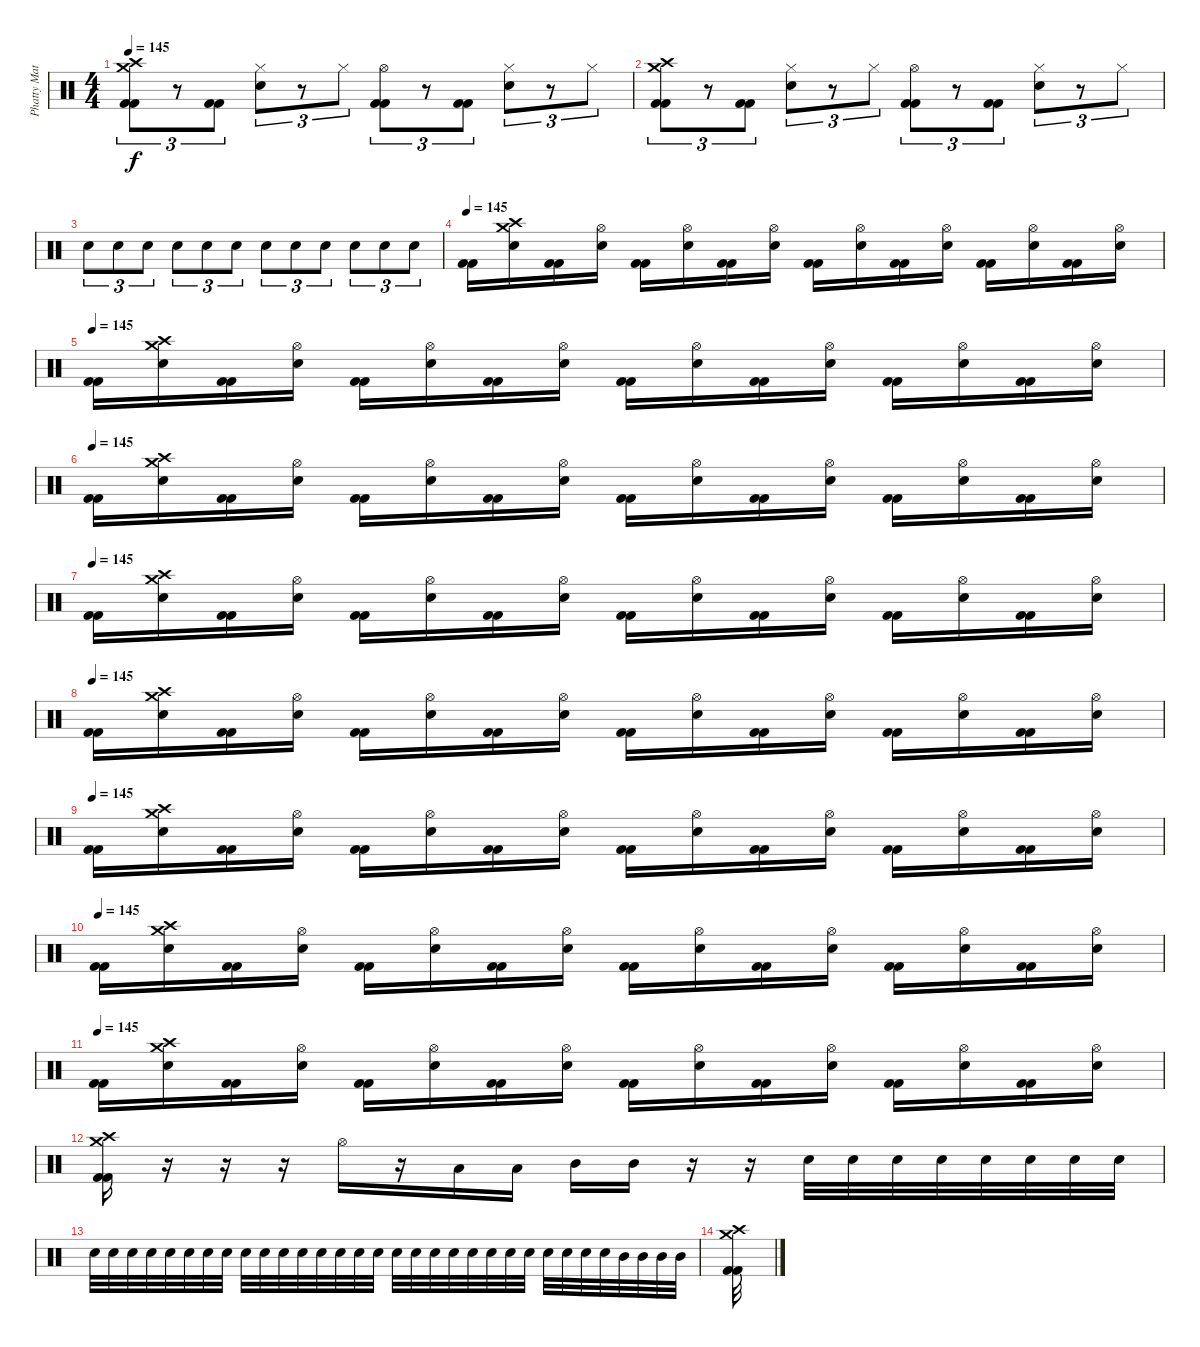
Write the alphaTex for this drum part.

\track ("Phatty Matty Withrow (Drums)" "Phatty Mat") {instrument percussion}
\staff {score}
\articulation defaults
\ts (4 4)
\tempo 145
\clef neutral
\ks c
("Crash high (hit)" "Crash medium (hit)" "Kick (hit) 2" "Kick (hit) 2").8{tu (3 2) dy f} r.8{tu (3 2)} ("Kick (hit) 2" "Kick (hit) 2").8{tu (3 2)} ("Hi-Hat (closed)" "Electric Snare (hit)").8{tu (3 2)} r.8{tu (3 2)} "Hi-Hat (closed)".8{tu (3 2)} ("Hi-Hat (open)" "Kick (hit) 2" "Kick (hit) 2").8{tu (3 2)} r.8{tu (3 2)} ("Kick (hit) 2" "Kick (hit) 2").8{tu (3 2)} ("Hi-Hat (closed)" "Snare (hit)").8{tu (3 2)} r.8{tu (3 2)} "Hi-Hat (closed)".8{tu (3 2)} |
("Crash high (hit)" "Crash medium (hit)" "Kick (hit) 2" "Kick (hit) 2").8{tu (3 2)} r.8{tu (3 2)} ("Kick (hit) 2" "Kick (hit) 2").8{tu (3 2)} ("Hi-Hat (closed)" "Electric Snare (hit)").8{tu (3 2)} r.8{tu (3 2)} "Hi-Hat (closed)".8{tu (3 2)} ("Hi-Hat (open)" "Kick (hit) 2" "Kick (hit) 2").8{tu (3 2)} r.8{tu (3 2)} ("Kick (hit) 2" "Kick (hit) 2").8{tu (3 2)} ("Hi-Hat (closed)" "Snare (hit)").8{tu (3 2)} r.8{tu (3 2)} "Hi-Hat (closed)".8{tu (3 2)} |
"Electric Snare (hit)".8{tu (3 2)} "Electric Snare (hit)".8{tu (3 2)} "Electric Snare (hit)".8{tu (3 2)} "Electric Snare (hit)".8{tu (3 2)} "Electric Snare (hit)".8{tu (3 2)} "Electric Snare (hit)".8{tu (3 2)} "Electric Snare (hit)".8{tu (3 2)} "Electric Snare (hit)".8{tu (3 2)} "Electric Snare (hit)".8{tu (3 2)} "Electric Snare (hit)".8{tu (3 2)} "Electric Snare (hit)".8{tu (3 2)} "Electric Snare (hit)".8{tu (3 2)} |
\tempo 145
("Kick (hit) 2" "Kick (hit) 2").16 ("Crash high (hit)" "Crash medium (hit)" "Electric Snare (hit)").16 ("Kick (hit) 2" "Kick (hit) 2").16 ("Hi-Hat (open)" "Electric Snare (hit)").16 ("Kick (hit) 2" "Kick (hit) 2").16 ("Hi-Hat (open)" "Electric Snare (hit)").16 ("Kick (hit) 2" "Kick (hit) 2").16 ("Hi-Hat (open)" "Electric Snare (hit)").16 ("Kick (hit) 2" "Kick (hit) 2").16 ("Hi-Hat (open)" "Electric Snare (hit)").16 ("Kick (hit) 2" "Kick (hit) 2").16 ("Hi-Hat (open)" "Electric Snare (hit)").16 ("Kick (hit) 2" "Kick (hit) 2").16 ("Hi-Hat (open)" "Electric Snare (hit)").16 ("Kick (hit) 2" "Kick (hit) 2").16 ("Hi-Hat (open)" "Electric Snare (hit)").16 |
\tempo 145
("Kick (hit) 2" "Kick (hit) 2").16 ("Crash high (hit)" "Crash medium (hit)" "Electric Snare (hit)").16 ("Kick (hit) 2" "Kick (hit) 2").16 ("Hi-Hat (open)" "Electric Snare (hit)").16 ("Kick (hit) 2" "Kick (hit) 2").16 ("Hi-Hat (open)" "Electric Snare (hit)").16 ("Kick (hit) 2" "Kick (hit) 2").16 ("Hi-Hat (open)" "Electric Snare (hit)").16 ("Kick (hit) 2" "Kick (hit) 2").16 ("Hi-Hat (open)" "Electric Snare (hit)").16 ("Kick (hit) 2" "Kick (hit) 2").16 ("Hi-Hat (open)" "Electric Snare (hit)").16 ("Kick (hit) 2" "Kick (hit) 2").16 ("Hi-Hat (open)" "Electric Snare (hit)").16 ("Kick (hit) 2" "Kick (hit) 2").16 ("Hi-Hat (open)" "Electric Snare (hit)").16 |
\tempo 145
("Kick (hit) 2" "Kick (hit) 2").16 ("Crash high (hit)" "Crash medium (hit)" "Electric Snare (hit)").16 ("Kick (hit) 2" "Kick (hit) 2").16 ("Hi-Hat (open)" "Electric Snare (hit)").16 ("Kick (hit) 2" "Kick (hit) 2").16 ("Hi-Hat (open)" "Electric Snare (hit)").16 ("Kick (hit) 2" "Kick (hit) 2").16 ("Hi-Hat (open)" "Electric Snare (hit)").16 ("Kick (hit) 2" "Kick (hit) 2").16 ("Hi-Hat (open)" "Electric Snare (hit)").16 ("Kick (hit) 2" "Kick (hit) 2").16 ("Hi-Hat (open)" "Electric Snare (hit)").16 ("Kick (hit) 2" "Kick (hit) 2").16 ("Hi-Hat (open)" "Electric Snare (hit)").16 ("Kick (hit) 2" "Kick (hit) 2").16 ("Hi-Hat (open)" "Electric Snare (hit)").16 |
\tempo 145
("Kick (hit) 2" "Kick (hit) 2").16 ("Crash high (hit)" "Crash medium (hit)" "Electric Snare (hit)").16 ("Kick (hit) 2" "Kick (hit) 2").16 ("Hi-Hat (open)" "Electric Snare (hit)").16 ("Kick (hit) 2" "Kick (hit) 2").16 ("Hi-Hat (open)" "Electric Snare (hit)").16 ("Kick (hit) 2" "Kick (hit) 2").16 ("Hi-Hat (open)" "Electric Snare (hit)").16 ("Kick (hit) 2" "Kick (hit) 2").16 ("Hi-Hat (open)" "Electric Snare (hit)").16 ("Kick (hit) 2" "Kick (hit) 2").16 ("Hi-Hat (open)" "Electric Snare (hit)").16 ("Kick (hit) 2" "Kick (hit) 2").16 ("Hi-Hat (open)" "Electric Snare (hit)").16 ("Kick (hit) 2" "Kick (hit) 2").16 ("Hi-Hat (open)" "Electric Snare (hit)").16 |
\tempo 145
("Kick (hit) 2" "Kick (hit) 2").16 ("Crash high (hit)" "Crash medium (hit)" "Electric Snare (hit)").16 ("Kick (hit) 2" "Kick (hit) 2").16 ("Hi-Hat (open)" "Electric Snare (hit)").16 ("Kick (hit) 2" "Kick (hit) 2").16 ("Hi-Hat (open)" "Electric Snare (hit)").16 ("Kick (hit) 2" "Kick (hit) 2").16 ("Hi-Hat (open)" "Electric Snare (hit)").16 ("Kick (hit) 2" "Kick (hit) 2").16 ("Hi-Hat (open)" "Electric Snare (hit)").16 ("Kick (hit) 2" "Kick (hit) 2").16 ("Hi-Hat (open)" "Electric Snare (hit)").16 ("Kick (hit) 2" "Kick (hit) 2").16 ("Hi-Hat (open)" "Electric Snare (hit)").16 ("Kick (hit) 2" "Kick (hit) 2").16 ("Hi-Hat (open)" "Electric Snare (hit)").16 |
\tempo 145
("Kick (hit) 2" "Kick (hit) 2").16 ("Crash high (hit)" "Crash medium (hit)" "Electric Snare (hit)").16 ("Kick (hit) 2" "Kick (hit) 2").16 ("Hi-Hat (open)" "Electric Snare (hit)").16 ("Kick (hit) 2" "Kick (hit) 2").16 ("Hi-Hat (open)" "Electric Snare (hit)").16 ("Kick (hit) 2" "Kick (hit) 2").16 ("Hi-Hat (open)" "Electric Snare (hit)").16 ("Kick (hit) 2" "Kick (hit) 2").16 ("Hi-Hat (open)" "Electric Snare (hit)").16 ("Kick (hit) 2" "Kick (hit) 2").16 ("Hi-Hat (open)" "Electric Snare (hit)").16 ("Kick (hit) 2" "Kick (hit) 2").16 ("Hi-Hat (open)" "Electric Snare (hit)").16 ("Kick (hit) 2" "Kick (hit) 2").16 ("Hi-Hat (open)" "Electric Snare (hit)").16 |
\tempo 145
("Kick (hit) 2" "Kick (hit) 2").16 ("Crash high (hit)" "Crash medium (hit)" "Electric Snare (hit)").16 ("Kick (hit) 2" "Kick (hit) 2").16 ("Hi-Hat (open)" "Electric Snare (hit)").16 ("Kick (hit) 2" "Kick (hit) 2").16 ("Hi-Hat (open)" "Electric Snare (hit)").16 ("Kick (hit) 2" "Kick (hit) 2").16 ("Hi-Hat (open)" "Electric Snare (hit)").16 ("Kick (hit) 2" "Kick (hit) 2").16 ("Hi-Hat (open)" "Electric Snare (hit)").16 ("Kick (hit) 2" "Kick (hit) 2").16 ("Hi-Hat (open)" "Electric Snare (hit)").16 ("Kick (hit) 2" "Kick (hit) 2").16 ("Hi-Hat (open)" "Electric Snare (hit)").16 ("Kick (hit) 2" "Kick (hit) 2").16 ("Hi-Hat (open)" "Electric Snare (hit)").16 |
\tempo 145
("Kick (hit) 2" "Kick (hit) 2").16 ("Crash high (hit)" "Crash medium (hit)" "Electric Snare (hit)").16 ("Kick (hit) 2" "Kick (hit) 2").16 ("Hi-Hat (open)" "Electric Snare (hit)").16 ("Kick (hit) 2" "Kick (hit) 2").16 ("Hi-Hat (open)" "Electric Snare (hit)").16 ("Kick (hit) 2" "Kick (hit) 2").16 ("Hi-Hat (open)" "Electric Snare (hit)").16 ("Kick (hit) 2" "Kick (hit) 2").16 ("Hi-Hat (open)" "Electric Snare (hit)").16 ("Kick (hit) 2" "Kick (hit) 2").16 ("Hi-Hat (open)" "Electric Snare (hit)").16 ("Kick (hit) 2" "Kick (hit) 2").16 ("Hi-Hat (open)" "Electric Snare (hit)").16 ("Kick (hit) 2" "Kick (hit) 2").16 ("Hi-Hat (open)" "Electric Snare (hit)").16 |
("Crash high (hit)" "Crash medium (hit)" "Kick (hit) 2" "Kick (hit) 2").16 r.16 r.16 r.16 "Hi-Hat (open)".16 r.16 "Low Floor Tom (hit)".16 "Low Floor Tom (hit)".16 "Mid Tom (hit)".16 "Mid Tom (hit)".16 r.16 r.16 "Electric Snare (hit)".32 "Electric Snare (hit)".32 "Electric Snare (hit)".32 "Electric Snare (hit)".32 "Electric Snare (hit)".32 "Electric Snare (hit)".32 "Electric Snare (hit)".32 "Electric Snare (hit)".32 |
"Electric Snare (hit)".32 "Electric Snare (hit)".32 "Electric Snare (hit)".32 "Electric Snare (hit)".32 "Electric Snare (hit)".32 "Electric Snare (hit)".32 "Electric Snare (hit)".32 "Electric Snare (hit)".32 "Electric Snare (hit)".32 "Electric Snare (hit)".32 "Electric Snare (hit)".32 "Electric Snare (hit)".32 "Electric Snare (hit)".32 "Electric Snare (hit)".32 "Electric Snare (hit)".32 "Electric Snare (hit)".32 "Electric Snare (hit)".32 "Electric Snare (hit)".32 "Electric Snare (hit)".32 "Electric Snare (hit)".32 "Electric Snare (hit)".32 "Electric Snare (hit)".32 "Electric Snare (hit)".32 "Electric Snare (hit)".32 "Electric Snare (hit)".32 "Electric Snare (hit)".32 "Electric Snare (hit)".32 "Electric Snare (hit)".32 "Mid Tom (hit)".32 "Mid Tom (hit)".32 "Mid Tom (hit)".32 "Mid Tom (hit)".32 |
("Crash high (hit)" "Crash medium (hit)" "Kick (hit) 2" "Kick (hit) 2").32
